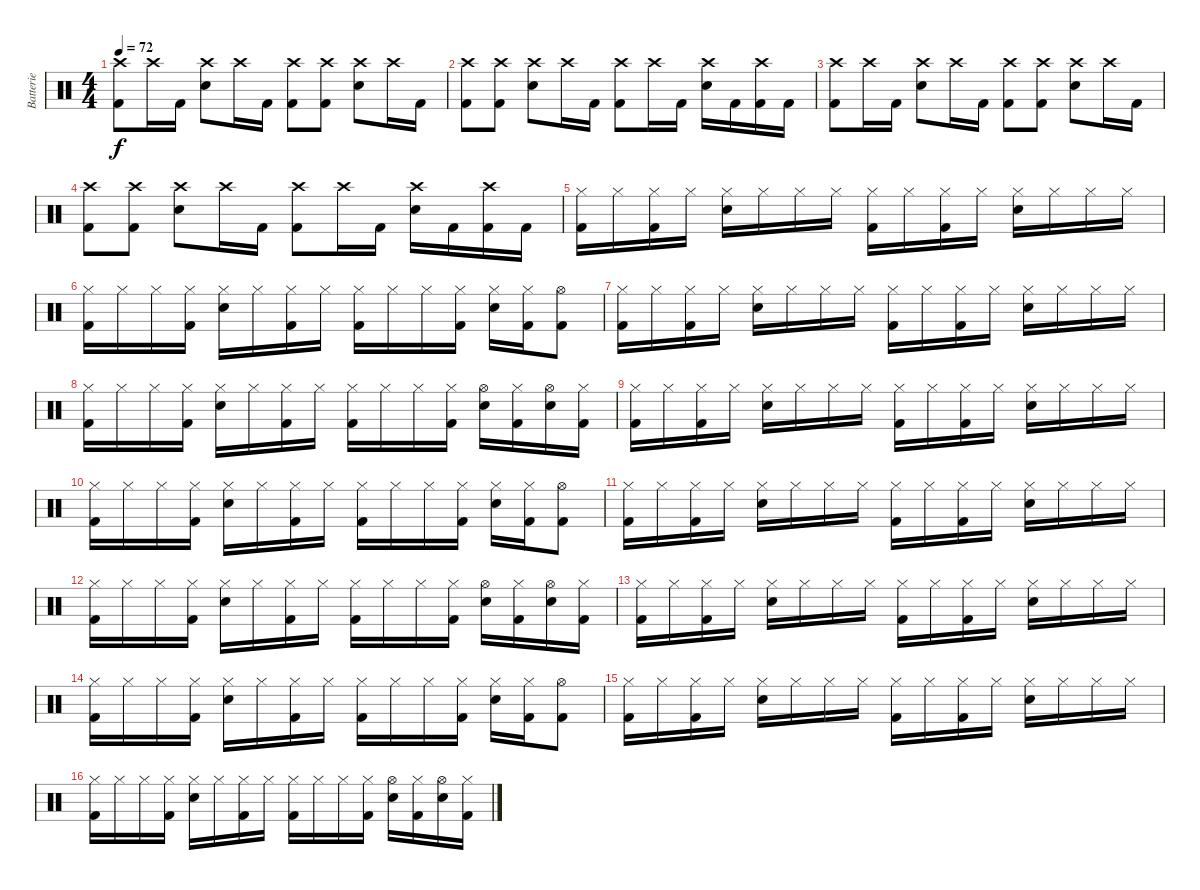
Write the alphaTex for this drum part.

\track ("Batterie" "Batterie") {instrument percussion}
\staff {score}
\articulation defaults
\ts (4 4)
\tempo 72
\clef neutral
\ks c
("Crash high (hit)" "Kick (hit) 2").8{dy f} "Crash high (hit)".16 "Kick (hit) 2".16 ("Crash high (hit)" "Snare (hit) 2").8 "Crash high (hit)".16 "Kick (hit) 2".16 ("Crash high (hit)" "Kick (hit) 2").8 ("Crash high (hit)" "Kick (hit) 2").8 ("Crash high (hit)" "Snare (hit) 2").8 "Crash high (hit)".16 "Kick (hit) 2".16 |
("Crash high (hit)" "Kick (hit) 2").8 ("Crash high (hit)" "Kick (hit) 2").8 ("Crash high (hit)" "Snare (hit) 2").8 "Crash high (hit)".16 "Kick (hit) 2".16 ("Crash high (hit)" "Kick (hit) 2").8 "Crash high (hit)".16 "Kick (hit) 2".16 ("Crash high (hit)" "Snare (hit) 2").16 "Kick (hit) 2".16 ("Crash high (hit)" "Kick (hit) 2").16 "Kick (hit) 2".16 |
("Crash high (hit)" "Kick (hit) 2").8 "Crash high (hit)".16 "Kick (hit) 2".16 ("Crash high (hit)" "Snare (hit) 2").8 "Crash high (hit)".16 "Kick (hit) 2".16 ("Crash high (hit)" "Kick (hit) 2").8 ("Crash high (hit)" "Kick (hit) 2").8 ("Crash high (hit)" "Snare (hit) 2").8 "Crash high (hit)".16 "Kick (hit) 2".16 |
("Crash high (hit)" "Kick (hit) 2").8 ("Crash high (hit)" "Kick (hit) 2").8 ("Crash high (hit)" "Snare (hit) 2").8 "Crash high (hit)".16 "Kick (hit) 2".16 ("Crash high (hit)" "Kick (hit) 2").8 "Crash high (hit)".16 "Kick (hit) 2".16 ("Crash high (hit)" "Snare (hit) 2").16 "Kick (hit) 2".16 ("Crash high (hit)" "Kick (hit) 2").16 "Kick (hit) 2".16 |
("Hi-Hat (closed)" "Kick (hit) 2").16 "Hi-Hat (closed)".16 ("Hi-Hat (closed)" "Kick (hit) 2").16 "Hi-Hat (closed)".16 ("Hi-Hat (closed)" "Snare (hit) 2").16 "Hi-Hat (closed)".16 "Hi-Hat (closed)".16 "Hi-Hat (closed)".16 ("Hi-Hat (closed)" "Kick (hit) 2").16 "Hi-Hat (closed)".16 ("Hi-Hat (closed)" "Kick (hit) 2").16 "Hi-Hat (closed)".16 ("Hi-Hat (closed)" "Snare (hit) 2").16 "Hi-Hat (closed)".16 "Hi-Hat (closed)".16 "Hi-Hat (closed)".16 |
("Hi-Hat (closed)" "Kick (hit) 2").16 "Hi-Hat (closed)".16 "Hi-Hat (closed)".16 ("Hi-Hat (closed)" "Kick (hit) 2").16 ("Hi-Hat (closed)" "Snare (hit) 2").16 "Hi-Hat (closed)".16 ("Hi-Hat (closed)" "Kick (hit) 2").16 "Hi-Hat (closed)".16 ("Hi-Hat (closed)" "Kick (hit) 2").16 "Hi-Hat (closed)".16 "Hi-Hat (closed)".16 ("Hi-Hat (closed)" "Kick (hit) 2").16 ("Hi-Hat (closed)" "Snare (hit) 2").16 ("Hi-Hat (closed)" "Kick (hit) 2").16 ("Hi-Hat (open)" "Kick (hit) 2").8 |
("Hi-Hat (closed)" "Kick (hit) 2").16 "Hi-Hat (closed)".16 ("Hi-Hat (closed)" "Kick (hit) 2").16 "Hi-Hat (closed)".16 ("Hi-Hat (closed)" "Snare (hit) 2").16 "Hi-Hat (closed)".16 "Hi-Hat (closed)".16 "Hi-Hat (closed)".16 ("Hi-Hat (closed)" "Kick (hit) 2").16 "Hi-Hat (closed)".16 ("Hi-Hat (closed)" "Kick (hit) 2").16 "Hi-Hat (closed)".16 ("Hi-Hat (closed)" "Snare (hit) 2").16 "Hi-Hat (closed)".16 "Hi-Hat (closed)".16 "Hi-Hat (closed)".16 |
("Hi-Hat (closed)" "Kick (hit) 2").16 "Hi-Hat (closed)".16 "Hi-Hat (closed)".16 ("Hi-Hat (closed)" "Kick (hit) 2").16 ("Hi-Hat (closed)" "Snare (hit) 2").16 "Hi-Hat (closed)".16 ("Hi-Hat (closed)" "Kick (hit) 2").16 "Hi-Hat (closed)".16 ("Hi-Hat (closed)" "Kick (hit) 2").16 "Hi-Hat (closed)".16 "Hi-Hat (closed)".16 ("Hi-Hat (closed)" "Kick (hit) 2").16 ("Hi-Hat (open)" "Snare (hit) 2").16 ("Hi-Hat (closed)" "Kick (hit) 2").16 ("Hi-Hat (open)" "Snare (hit) 2").16 ("Hi-Hat (closed)" "Kick (hit) 2").16 |
("Hi-Hat (closed)" "Kick (hit) 2").16 "Hi-Hat (closed)".16 ("Hi-Hat (closed)" "Kick (hit) 2").16 "Hi-Hat (closed)".16 ("Hi-Hat (closed)" "Snare (hit) 2").16 "Hi-Hat (closed)".16 "Hi-Hat (closed)".16 "Hi-Hat (closed)".16 ("Hi-Hat (closed)" "Kick (hit) 2").16 "Hi-Hat (closed)".16 ("Hi-Hat (closed)" "Kick (hit) 2").16 "Hi-Hat (closed)".16 ("Hi-Hat (closed)" "Snare (hit) 2").16 "Hi-Hat (closed)".16 "Hi-Hat (closed)".16 "Hi-Hat (closed)".16 |
("Hi-Hat (closed)" "Kick (hit) 2").16 "Hi-Hat (closed)".16 "Hi-Hat (closed)".16 ("Hi-Hat (closed)" "Kick (hit) 2").16 ("Hi-Hat (closed)" "Snare (hit) 2").16 "Hi-Hat (closed)".16 ("Hi-Hat (closed)" "Kick (hit) 2").16 "Hi-Hat (closed)".16 ("Hi-Hat (closed)" "Kick (hit) 2").16 "Hi-Hat (closed)".16 "Hi-Hat (closed)".16 ("Hi-Hat (closed)" "Kick (hit) 2").16 ("Hi-Hat (closed)" "Snare (hit) 2").16 ("Hi-Hat (closed)" "Kick (hit) 2").16 ("Hi-Hat (open)" "Kick (hit) 2").8 |
("Hi-Hat (closed)" "Kick (hit) 2").16 "Hi-Hat (closed)".16 ("Hi-Hat (closed)" "Kick (hit) 2").16 "Hi-Hat (closed)".16 ("Hi-Hat (closed)" "Snare (hit) 2").16 "Hi-Hat (closed)".16 "Hi-Hat (closed)".16 "Hi-Hat (closed)".16 ("Hi-Hat (closed)" "Kick (hit) 2").16 "Hi-Hat (closed)".16 ("Hi-Hat (closed)" "Kick (hit) 2").16 "Hi-Hat (closed)".16 ("Hi-Hat (closed)" "Snare (hit) 2").16 "Hi-Hat (closed)".16 "Hi-Hat (closed)".16 "Hi-Hat (closed)".16 |
("Hi-Hat (closed)" "Kick (hit) 2").16 "Hi-Hat (closed)".16 "Hi-Hat (closed)".16 ("Hi-Hat (closed)" "Kick (hit) 2").16 ("Hi-Hat (closed)" "Snare (hit) 2").16 "Hi-Hat (closed)".16 ("Hi-Hat (closed)" "Kick (hit) 2").16 "Hi-Hat (closed)".16 ("Hi-Hat (closed)" "Kick (hit) 2").16 "Hi-Hat (closed)".16 "Hi-Hat (closed)".16 ("Hi-Hat (closed)" "Kick (hit) 2").16 ("Hi-Hat (open)" "Snare (hit) 2").16 ("Hi-Hat (closed)" "Kick (hit) 2").16 ("Hi-Hat (open)" "Snare (hit) 2").16 ("Hi-Hat (closed)" "Kick (hit) 2").16 |
("Hi-Hat (closed)" "Kick (hit) 2").16 "Hi-Hat (closed)".16 ("Hi-Hat (closed)" "Kick (hit) 2").16 "Hi-Hat (closed)".16 ("Hi-Hat (closed)" "Snare (hit) 2").16 "Hi-Hat (closed)".16 "Hi-Hat (closed)".16 "Hi-Hat (closed)".16 ("Hi-Hat (closed)" "Kick (hit) 2").16 "Hi-Hat (closed)".16 ("Hi-Hat (closed)" "Kick (hit) 2").16 "Hi-Hat (closed)".16 ("Hi-Hat (closed)" "Snare (hit) 2").16 "Hi-Hat (closed)".16 "Hi-Hat (closed)".16 "Hi-Hat (closed)".16 |
("Hi-Hat (closed)" "Kick (hit) 2").16 "Hi-Hat (closed)".16 "Hi-Hat (closed)".16 ("Hi-Hat (closed)" "Kick (hit) 2").16 ("Hi-Hat (closed)" "Snare (hit) 2").16 "Hi-Hat (closed)".16 ("Hi-Hat (closed)" "Kick (hit) 2").16 "Hi-Hat (closed)".16 ("Hi-Hat (closed)" "Kick (hit) 2").16 "Hi-Hat (closed)".16 "Hi-Hat (closed)".16 ("Hi-Hat (closed)" "Kick (hit) 2").16 ("Hi-Hat (closed)" "Snare (hit) 2").16 ("Hi-Hat (closed)" "Kick (hit) 2").16 ("Hi-Hat (open)" "Kick (hit) 2").8 |
("Hi-Hat (closed)" "Kick (hit) 2").16 "Hi-Hat (closed)".16 ("Hi-Hat (closed)" "Kick (hit) 2").16 "Hi-Hat (closed)".16 ("Hi-Hat (closed)" "Snare (hit) 2").16 "Hi-Hat (closed)".16 "Hi-Hat (closed)".16 "Hi-Hat (closed)".16 ("Hi-Hat (closed)" "Kick (hit) 2").16 "Hi-Hat (closed)".16 ("Hi-Hat (closed)" "Kick (hit) 2").16 "Hi-Hat (closed)".16 ("Hi-Hat (closed)" "Snare (hit) 2").16 "Hi-Hat (closed)".16 "Hi-Hat (closed)".16 "Hi-Hat (closed)".16 |
("Hi-Hat (closed)" "Kick (hit) 2").16 "Hi-Hat (closed)".16 "Hi-Hat (closed)".16 ("Hi-Hat (closed)" "Kick (hit) 2").16 ("Hi-Hat (closed)" "Snare (hit) 2").16 "Hi-Hat (closed)".16 ("Hi-Hat (closed)" "Kick (hit) 2").16 "Hi-Hat (closed)".16 ("Hi-Hat (closed)" "Kick (hit) 2").16 "Hi-Hat (closed)".16 "Hi-Hat (closed)".16 ("Hi-Hat (closed)" "Kick (hit) 2").16 ("Hi-Hat (open)" "Snare (hit) 2").16 ("Hi-Hat (closed)" "Kick (hit) 2").16 ("Hi-Hat (open)" "Snare (hit) 2").16 ("Hi-Hat (closed)" "Kick (hit) 2").16
